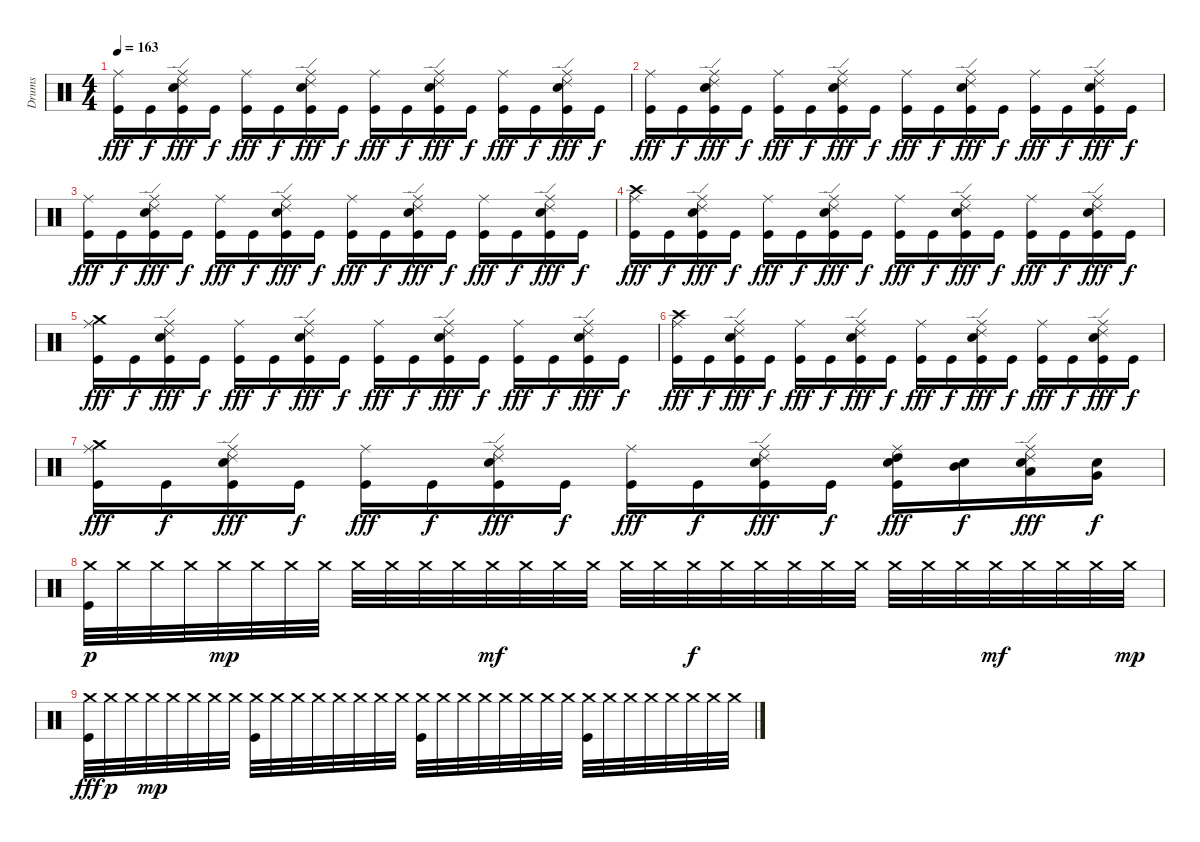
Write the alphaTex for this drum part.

\track ("Drums" "Drums") {instrument percussion}
\staff {score}
\articulation defaults
\ts (4 4)
\tempo 163
\clef neutral
\ks c
("Ride (middle)" "Kick (hit)").16{dy fff} "Kick (hit)".16{dy f} ("Electric Snare (hit)" "Kick (hit)" "Ride (middle)" "Ride (edge) 2").16{dy fff} "Kick (hit)".16{dy f} ("Kick (hit)" "Ride (middle)").16{dy fff} "Kick (hit)".16{dy f} ("Electric Snare (hit)" "Kick (hit)" "Ride (middle)" "Ride (edge) 2").16{dy fff} "Kick (hit)".16{dy f} ("Ride (middle)" "Kick (hit)").16{dy fff} "Kick (hit)".16{dy f} ("Ride (middle)" "Ride (edge) 2" "Kick (hit)" "Electric Snare (hit)").16{dy fff} "Kick (hit)".16{dy f} ("Ride (middle)" "Kick (hit)").16{dy fff} "Kick (hit)".16{dy f} ("Electric Snare (hit)" "Kick (hit)" "Ride (middle)" "Ride (edge) 2").16{dy fff} "Kick (hit)".16{dy f} |
("Kick (hit)" "Ride (middle)").16{dy fff} "Kick (hit)".16{dy f} ("Ride (middle)" "Kick (hit)" "Ride (edge) 2" "Electric Snare (hit)").16{dy fff} "Kick (hit)".16{dy f} ("Kick (hit)" "Ride (middle)").16{dy fff} "Kick (hit)".16{dy f} ("Ride (edge) 2" "Electric Snare (hit)" "Kick (hit)" "Ride (middle)").16{dy fff} "Kick (hit)".16{dy f} ("Ride (middle)" "Kick (hit)").16{dy fff} "Kick (hit)".16{dy f} ("Ride (middle)" "Ride (edge) 2" "Electric Snare (hit)" "Kick (hit)").16{dy fff} "Kick (hit)".16{dy f} ("Ride (middle)" "Kick (hit)").16{dy fff} "Kick (hit)".16{dy f} ("Kick (hit)" "Electric Snare (hit)" "Ride (edge) 2" "Ride (middle)").16{dy fff} "Kick (hit)".16{dy f} |
("Ride (middle)" "Kick (hit)").16{dy fff} "Kick (hit)".16{dy f} ("Electric Snare (hit)" "Kick (hit)" "Ride (middle)" "Ride (edge) 2").16{dy fff} "Kick (hit)".16{dy f} ("Kick (hit)" "Ride (middle)").16{dy fff} "Kick (hit)".16{dy f} ("Electric Snare (hit)" "Kick (hit)" "Ride (middle)" "Ride (edge) 2").16{dy fff} "Kick (hit)".16{dy f} ("Kick (hit)" "Ride (middle)").16{dy fff} "Kick (hit)".16{dy f} ("Kick (hit)" "Ride (edge) 2" "Electric Snare (hit)" "Ride (middle)").16{dy fff} "Kick (hit)".16{dy f} ("Ride (middle)" "Kick (hit)").16{dy fff} "Kick (hit)".16{dy f} ("Ride (edge) 2" "Electric Snare (hit)" "Kick (hit)" "Ride (middle)").16{dy fff} "Kick (hit)".16{dy f} |
("Crash high (hit)" "Kick (hit)" "Ride (middle)").16{dy fff} "Kick (hit)".16{dy f} ("Kick (hit)" "Electric Snare (hit)" "Ride (middle)" "Ride (edge) 2").16{dy fff} "Kick (hit)".16{dy f} ("Kick (hit)" "Ride (middle)").16{dy fff} "Kick (hit)".16{dy f} ("Kick (hit)" "Ride (edge) 2" "Electric Snare (hit)" "Ride (middle)").16{dy fff} "Kick (hit)".16{dy f} ("Kick (hit)" "Ride (middle)").16{dy fff} "Kick (hit)".16{dy f} ("Ride (edge) 2" "Electric Snare (hit)" "Kick (hit)" "Ride (middle)").16{dy fff} "Kick (hit)".16{dy f} ("Kick (hit)" "Ride (middle)").16{dy fff} "Kick (hit)".16{dy f} ("Ride (middle)" "Ride (edge) 2" "Electric Snare (hit)" "Kick (hit)").16{dy fff} "Kick (hit)".16{dy f} |
("Crash medium (hit)" "Ride (middle)" "Kick (hit)").16{dy fff} "Kick (hit)".16{dy f} ("Electric Snare (hit)" "Kick (hit)" "Ride (middle)" "Ride (edge) 2").16{dy fff} "Kick (hit)".16{dy f} ("Kick (hit)" "Ride (middle)").16{dy fff} "Kick (hit)".16{dy f} ("Electric Snare (hit)" "Kick (hit)" "Ride (middle)" "Ride (edge) 2").16{dy fff} "Kick (hit)".16{dy f} ("Ride (middle)" "Kick (hit)").16{dy fff} "Kick (hit)".16{dy f} ("Ride (middle)" "Ride (edge) 2" "Kick (hit)" "Electric Snare (hit)").16{dy fff} "Kick (hit)".16{dy f} ("Ride (middle)" "Kick (hit)").16{dy fff} "Kick (hit)".16{dy f} ("Electric Snare (hit)" "Kick (hit)" "Ride (middle)" "Ride (edge) 2").16{dy fff} "Kick (hit)".16{dy f} |
("Crash high (hit)" "Kick (hit)" "Ride (middle)").16{dy fff} "Kick (hit)".16{dy f} ("Ride (middle)" "Kick (hit)" "Ride (edge) 2" "Electric Snare (hit)").16{dy fff} "Kick (hit)".16{dy f} ("Kick (hit)" "Ride (middle)").16{dy fff} "Kick (hit)".16{dy f} ("Ride (edge) 2" "Electric Snare (hit)" "Kick (hit)" "Ride (middle)").16{dy fff} "Kick (hit)".16{dy f} ("Ride (middle)" "Kick (hit)").16{dy fff} "Kick (hit)".16{dy f} ("Ride (middle)" "Ride (edge) 2" "Electric Snare (hit)" "Kick (hit)").16{dy fff} "Kick (hit)".16{dy f} ("Ride (middle)" "Kick (hit)").16{dy fff} "Kick (hit)".16{dy f} ("Kick (hit)" "Electric Snare (hit)" "Ride (edge) 2" "Ride (middle)").16{dy fff} "Kick (hit)".16{dy f} |
("Crash medium (hit)" "Ride (middle)" "Kick (hit)").16{dy fff} "Kick (hit)".16{dy f} ("Electric Snare (hit)" "Kick (hit)" "Ride (middle)" "Ride (edge) 2").16{dy fff} "Kick (hit)".16{dy f} ("Kick (hit)" "Ride (middle)").16{dy fff} "Kick (hit)".16{dy f} ("Electric Snare (hit)" "Kick (hit)" "Ride (middle)" "Ride (edge) 2").16{dy fff} "Kick (hit)".16{dy f} ("Kick (hit)" "Ride (middle)").16{dy fff} "Kick (hit)".16{dy f} ("Kick (hit)" "Ride (edge) 2" "Electric Snare (hit)" "Ride (middle)").16{dy fff} "Kick (hit)".16{dy f} ("Electric Snare (hit)" "High Tom (hit)" "Ride (middle)" "Kick (hit)").16{dy fff} ("Electric Snare (hit)" "Mid Tom (hit)").16{dy f} ("Low Tom (hit)" "Ride (edge) 2" "Electric Snare (hit)" "Ride (middle)").16{dy fff} ("Electric Snare (hit)" "Very Low Tom (hit)").16{dy f} |
("Kick (hit)" "Crash medium (hit)").32{dy p} "Crash medium (hit)".32 "Crash medium (hit)".32 "Crash medium (hit)".32 "Crash medium (hit)".32{dy mp} "Crash medium (hit)".32 "Crash medium (hit)".32 "Crash medium (hit)".32 "Crash medium (hit)".32 "Crash medium (hit)".32 "Crash medium (hit)".32 "Crash medium (hit)".32 "Crash medium (hit)".32{dy mf} "Crash medium (hit)".32 "Crash medium (hit)".32 "Crash medium (hit)".32 "Crash medium (hit)".32 "Crash medium (hit)".32 "Crash medium (hit)".32{dy f} "Crash medium (hit)".32 "Crash medium (hit)".32 "Crash medium (hit)".32 "Crash medium (hit)".32 "Crash medium (hit)".32 "Crash medium (hit)".32 "Crash medium (hit)".32 "Crash medium (hit)".32 "Crash medium (hit)".32{dy mf} "Crash medium (hit)".32 "Crash medium (hit)".32 "Crash medium (hit)".32 "Crash medium (hit)".32{dy mp} |
("Crash medium (hit)" "Kick (hit)").32{dy fff} "Crash medium (hit)".32{dy p} "Crash medium (hit)".32 "Crash medium (hit)".32{dy mp} "Crash medium (hit)".32 "Crash medium (hit)".32 "Crash medium (hit)".32 "Crash medium (hit)".32 ("Kick (hit)" "Crash medium (hit)").32 "Crash medium (hit)".32 "Crash medium (hit)".32 "Crash medium (hit)".32 "Crash medium (hit)".32 "Crash medium (hit)".32 "Crash medium (hit)".32 "Crash medium (hit)".32 ("Kick (hit)" "Crash medium (hit)").32 "Crash medium (hit)".32 "Crash medium (hit)".32 "Crash medium (hit)".32 "Crash medium (hit)".32 "Crash medium (hit)".32 "Crash medium (hit)".32 "Crash medium (hit)".32 ("Kick (hit)" "Crash medium (hit)").32 "Crash medium (hit)".32 "Crash medium (hit)".32 "Crash medium (hit)".32 "Crash medium (hit)".32 "Crash medium (hit)".32 "Crash medium (hit)".32 "Crash medium (hit)".32
